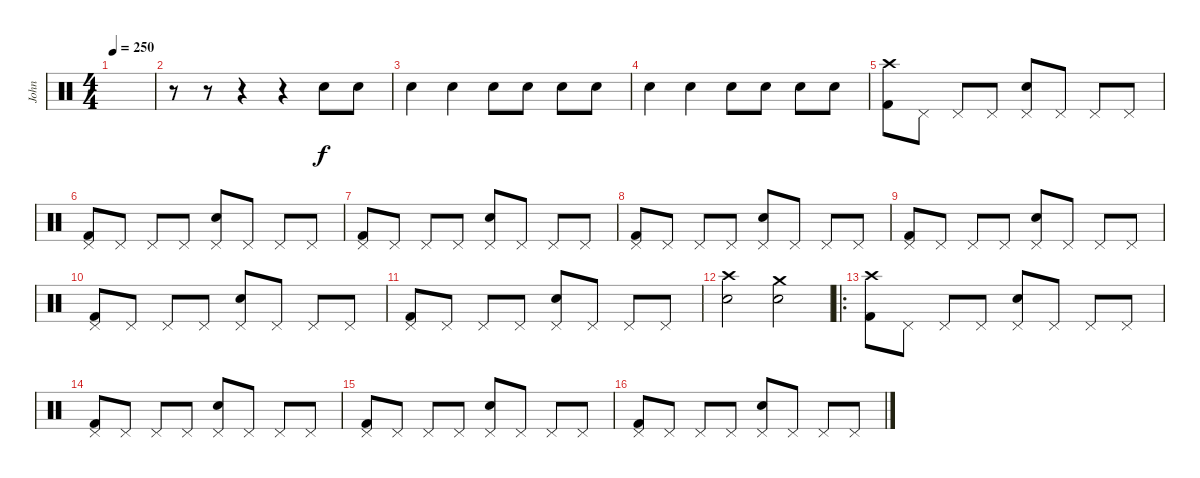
\track ("John" "John") {instrument percussion}
\staff {score}
\articulation defaults
\ts (4 4)
\tempo 250
\clef neutral
\ks c
|
r.8 r.8 r.4 r.4 "Electric Snare (hit)".8 "Electric Snare (hit)".8 |
"Electric Snare (hit)".4 "Electric Snare (hit)".4 "Electric Snare (hit)".8 "Electric Snare (hit)".8 "Electric Snare (hit)".8 "Electric Snare (hit)".8 |
"Electric Snare (hit)".4 "Electric Snare (hit)".4 "Electric Snare (hit)".8 "Electric Snare (hit)".8 "Electric Snare (hit)".8 "Electric Snare (hit)".8 |
("Crash high (hit)" "Kick (hit) 2").8 "Pedal Hi-Hat (hit)".8 "Pedal Hi-Hat (hit)".8 "Pedal Hi-Hat (hit)".8 ("Pedal Hi-Hat (hit)" "Electric Snare (hit)").8 "Pedal Hi-Hat (hit)".8 "Pedal Hi-Hat (hit)".8 "Pedal Hi-Hat (hit)".8 |
("Pedal Hi-Hat (hit)" "Kick (hit) 2").8 "Pedal Hi-Hat (hit)".8 "Pedal Hi-Hat (hit)".8 "Pedal Hi-Hat (hit)".8 ("Pedal Hi-Hat (hit)" "Electric Snare (hit)").8 "Pedal Hi-Hat (hit)".8 "Pedal Hi-Hat (hit)".8 "Pedal Hi-Hat (hit)".8 |
("Pedal Hi-Hat (hit)" "Kick (hit) 2").8 "Pedal Hi-Hat (hit)".8 "Pedal Hi-Hat (hit)".8 "Pedal Hi-Hat (hit)".8 ("Pedal Hi-Hat (hit)" "Electric Snare (hit)").8 "Pedal Hi-Hat (hit)".8 "Pedal Hi-Hat (hit)".8 "Pedal Hi-Hat (hit)".8 |
("Pedal Hi-Hat (hit)" "Kick (hit) 2").8 "Pedal Hi-Hat (hit)".8 "Pedal Hi-Hat (hit)".8 "Pedal Hi-Hat (hit)".8 ("Pedal Hi-Hat (hit)" "Electric Snare (hit)").8 "Pedal Hi-Hat (hit)".8 "Pedal Hi-Hat (hit)".8 "Pedal Hi-Hat (hit)".8 |
("Pedal Hi-Hat (hit)" "Kick (hit) 2").8 "Pedal Hi-Hat (hit)".8 "Pedal Hi-Hat (hit)".8 "Pedal Hi-Hat (hit)".8 ("Pedal Hi-Hat (hit)" "Electric Snare (hit)").8 "Pedal Hi-Hat (hit)".8 "Pedal Hi-Hat (hit)".8 "Pedal Hi-Hat (hit)".8 |
("Pedal Hi-Hat (hit)" "Kick (hit) 2").8 "Pedal Hi-Hat (hit)".8 "Pedal Hi-Hat (hit)".8 "Pedal Hi-Hat (hit)".8 ("Pedal Hi-Hat (hit)" "Electric Snare (hit)").8 "Pedal Hi-Hat (hit)".8 "Pedal Hi-Hat (hit)".8 "Pedal Hi-Hat (hit)".8 |
("Pedal Hi-Hat (hit)" "Kick (hit) 2").8 "Pedal Hi-Hat (hit)".8 "Pedal Hi-Hat (hit)".8 "Pedal Hi-Hat (hit)".8 ("Pedal Hi-Hat (hit)" "Electric Snare (hit)").8 "Pedal Hi-Hat (hit)".8 "Pedal Hi-Hat (hit)".8 "Pedal Hi-Hat (hit)".8 |
("Crash high (hit)" "Electric Snare (hit)").2 ("Crash medium (hit)" "Electric Snare (hit)").2 |
\ro
("Crash high (hit)" "Kick (hit) 2").8 "Pedal Hi-Hat (hit)".8 "Pedal Hi-Hat (hit)".8 "Pedal Hi-Hat (hit)".8 ("Pedal Hi-Hat (hit)" "Electric Snare (hit)").8 "Pedal Hi-Hat (hit)".8 "Pedal Hi-Hat (hit)".8 "Pedal Hi-Hat (hit)".8 |
("Pedal Hi-Hat (hit)" "Kick (hit) 2").8 "Pedal Hi-Hat (hit)".8 "Pedal Hi-Hat (hit)".8 "Pedal Hi-Hat (hit)".8 ("Pedal Hi-Hat (hit)" "Electric Snare (hit)").8 "Pedal Hi-Hat (hit)".8 "Pedal Hi-Hat (hit)".8 "Pedal Hi-Hat (hit)".8 |
("Pedal Hi-Hat (hit)" "Kick (hit) 2").8 "Pedal Hi-Hat (hit)".8 "Pedal Hi-Hat (hit)".8 "Pedal Hi-Hat (hit)".8 ("Pedal Hi-Hat (hit)" "Electric Snare (hit)").8 "Pedal Hi-Hat (hit)".8 "Pedal Hi-Hat (hit)".8 "Pedal Hi-Hat (hit)".8 |
("Pedal Hi-Hat (hit)" "Kick (hit) 2").8 "Pedal Hi-Hat (hit)".8 "Pedal Hi-Hat (hit)".8 "Pedal Hi-Hat (hit)".8 ("Pedal Hi-Hat (hit)" "Electric Snare (hit)").8 "Pedal Hi-Hat (hit)".8 "Pedal Hi-Hat (hit)".8 "Pedal Hi-Hat (hit)".8
